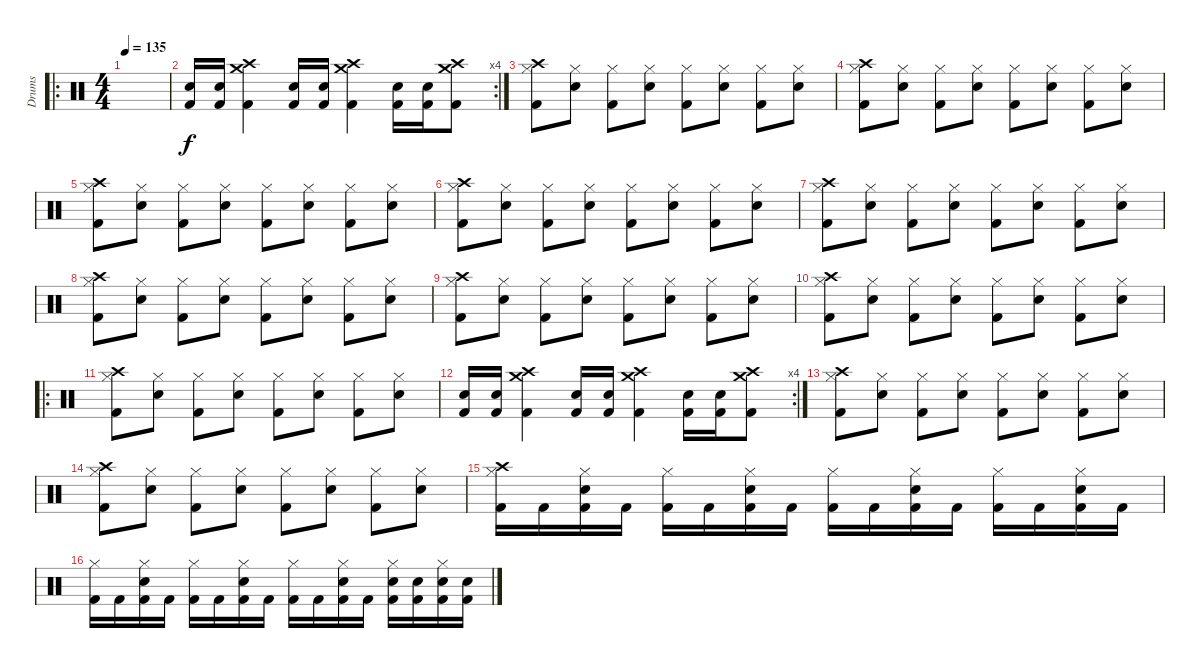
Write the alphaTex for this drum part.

\track ("Drums" "Drums") {instrument percussion}
\staff {score}
\articulation defaults
\ro
\ts (4 4)
\tempo 135
\clef neutral
\ks c
|
\rc 4
("Electric Snare (hit)" "Kick (hit) 2").16 ("Electric Snare (hit)" "Kick (hit) 2").16 ("Crash high (hit)" "Crash medium (hit)" "Kick (hit) 2").4 ("Electric Snare (hit)" "Kick (hit) 2").16 ("Electric Snare (hit)" "Kick (hit) 2").16 ("Crash high (hit)" "Crash medium (hit)" "Kick (hit) 2").4 ("Electric Snare (hit)" "Kick (hit) 2").16 ("Electric Snare (hit)" "Kick (hit) 2").16 ("Crash high (hit)" "Crash medium (hit)" "Kick (hit) 2").8 |
("Hi-Hat (closed)" "Kick (hit) 2" "Crash high (hit)").8 ("Hi-Hat (closed)" "Electric Snare (hit)").8 ("Hi-Hat (closed)" "Kick (hit) 2").8 ("Hi-Hat (closed)" "Electric Snare (hit)").8 ("Hi-Hat (closed)" "Kick (hit) 2").8 ("Hi-Hat (closed)" "Electric Snare (hit)").8 ("Hi-Hat (closed)" "Kick (hit) 2").8 ("Hi-Hat (closed)" "Electric Snare (hit)").8 |
("Hi-Hat (closed)" "Kick (hit) 2" "Crash high (hit)").8 ("Hi-Hat (closed)" "Electric Snare (hit)").8 ("Hi-Hat (closed)" "Kick (hit) 2").8 ("Hi-Hat (closed)" "Electric Snare (hit)").8 ("Hi-Hat (closed)" "Kick (hit) 2").8 ("Hi-Hat (closed)" "Electric Snare (hit)").8 ("Hi-Hat (closed)" "Kick (hit) 2").8 ("Hi-Hat (closed)" "Electric Snare (hit)").8 |
("Hi-Hat (closed)" "Kick (hit) 2" "Crash high (hit)").8 ("Hi-Hat (closed)" "Electric Snare (hit)").8 ("Hi-Hat (closed)" "Kick (hit) 2").8 ("Hi-Hat (closed)" "Electric Snare (hit)").8 ("Hi-Hat (closed)" "Kick (hit) 2").8 ("Hi-Hat (closed)" "Electric Snare (hit)").8 ("Hi-Hat (closed)" "Kick (hit) 2").8 ("Hi-Hat (closed)" "Electric Snare (hit)").8 |
("Hi-Hat (closed)" "Kick (hit) 2" "Crash high (hit)").8 ("Hi-Hat (closed)" "Electric Snare (hit)").8 ("Hi-Hat (closed)" "Kick (hit) 2").8 ("Hi-Hat (closed)" "Electric Snare (hit)").8 ("Hi-Hat (closed)" "Kick (hit) 2").8 ("Hi-Hat (closed)" "Electric Snare (hit)").8 ("Hi-Hat (closed)" "Kick (hit) 2").8 ("Hi-Hat (closed)" "Electric Snare (hit)").8 |
("Hi-Hat (closed)" "Kick (hit) 2" "Crash high (hit)").8 ("Hi-Hat (closed)" "Electric Snare (hit)").8 ("Hi-Hat (closed)" "Kick (hit) 2").8 ("Hi-Hat (closed)" "Electric Snare (hit)").8 ("Hi-Hat (closed)" "Kick (hit) 2").8 ("Hi-Hat (closed)" "Electric Snare (hit)").8 ("Hi-Hat (closed)" "Kick (hit) 2").8 ("Hi-Hat (closed)" "Electric Snare (hit)").8 |
("Hi-Hat (closed)" "Kick (hit) 2" "Crash high (hit)").8 ("Hi-Hat (closed)" "Electric Snare (hit)").8 ("Hi-Hat (closed)" "Kick (hit) 2").8 ("Hi-Hat (closed)" "Electric Snare (hit)").8 ("Hi-Hat (closed)" "Kick (hit) 2").8 ("Hi-Hat (closed)" "Electric Snare (hit)").8 ("Hi-Hat (closed)" "Kick (hit) 2").8 ("Hi-Hat (closed)" "Electric Snare (hit)").8 |
("Hi-Hat (closed)" "Kick (hit) 2" "Crash high (hit)").8 ("Hi-Hat (closed)" "Electric Snare (hit)").8 ("Hi-Hat (closed)" "Kick (hit) 2").8 ("Hi-Hat (closed)" "Electric Snare (hit)").8 ("Hi-Hat (closed)" "Kick (hit) 2").8 ("Hi-Hat (closed)" "Electric Snare (hit)").8 ("Hi-Hat (closed)" "Kick (hit) 2").8 ("Hi-Hat (closed)" "Electric Snare (hit)").8 |
("Hi-Hat (closed)" "Kick (hit) 2" "Crash high (hit)").8 ("Hi-Hat (closed)" "Electric Snare (hit)").8 ("Hi-Hat (closed)" "Kick (hit) 2").8 ("Hi-Hat (closed)" "Electric Snare (hit)").8 ("Hi-Hat (closed)" "Kick (hit) 2").8 ("Hi-Hat (closed)" "Electric Snare (hit)").8 ("Hi-Hat (closed)" "Kick (hit) 2").8 ("Hi-Hat (closed)" "Electric Snare (hit)").8 |
\ro
("Hi-Hat (closed)" "Kick (hit) 2" "Crash high (hit)").8 ("Hi-Hat (closed)" "Electric Snare (hit)").8 ("Hi-Hat (closed)" "Kick (hit) 2").8 ("Hi-Hat (closed)" "Electric Snare (hit)").8 ("Hi-Hat (closed)" "Kick (hit) 2").8 ("Hi-Hat (closed)" "Electric Snare (hit)").8 ("Hi-Hat (closed)" "Kick (hit) 2").8 ("Hi-Hat (closed)" "Electric Snare (hit)").8 |
\rc 4
("Electric Snare (hit)" "Kick (hit) 2").16 ("Electric Snare (hit)" "Kick (hit) 2").16 ("Crash high (hit)" "Crash medium (hit)" "Kick (hit) 2").4 ("Electric Snare (hit)" "Kick (hit) 2").16 ("Electric Snare (hit)" "Kick (hit) 2").16 ("Crash high (hit)" "Crash medium (hit)" "Kick (hit) 2").4 ("Electric Snare (hit)" "Kick (hit) 2").16 ("Electric Snare (hit)" "Kick (hit) 2").16 ("Crash high (hit)" "Crash medium (hit)" "Kick (hit) 2").8 |
("Hi-Hat (closed)" "Kick (hit) 2" "Crash high (hit)").8 ("Hi-Hat (closed)" "Electric Snare (hit)").8 ("Hi-Hat (closed)" "Kick (hit) 2").8 ("Hi-Hat (closed)" "Electric Snare (hit)").8 ("Hi-Hat (closed)" "Kick (hit) 2").8 ("Hi-Hat (closed)" "Electric Snare (hit)").8 ("Hi-Hat (closed)" "Kick (hit) 2").8 ("Hi-Hat (closed)" "Electric Snare (hit)").8 |
("Hi-Hat (closed)" "Kick (hit) 2" "Crash high (hit)").8 ("Hi-Hat (closed)" "Electric Snare (hit)").8 ("Hi-Hat (closed)" "Kick (hit) 2").8 ("Hi-Hat (closed)" "Electric Snare (hit)").8 ("Hi-Hat (closed)" "Kick (hit) 2").8 ("Hi-Hat (closed)" "Electric Snare (hit)").8 ("Hi-Hat (closed)" "Kick (hit) 2").8 ("Hi-Hat (closed)" "Electric Snare (hit)").8 |
("Kick (hit) 2" "Hi-Hat (closed)" "Crash high (hit)").16 "Kick (hit) 2".16 ("Kick (hit) 2" "Electric Snare (hit)" "Hi-Hat (closed)").16 "Kick (hit) 2".16 ("Kick (hit) 2" "Hi-Hat (closed)").16 "Kick (hit) 2".16 ("Kick (hit) 2" "Electric Snare (hit)" "Hi-Hat (closed)").16 "Kick (hit) 2".16 ("Kick (hit) 2" "Hi-Hat (closed)").16 "Kick (hit) 2".16 ("Kick (hit) 2" "Electric Snare (hit)" "Hi-Hat (closed)").16 "Kick (hit) 2".16 ("Kick (hit) 2" "Hi-Hat (closed)").16 "Kick (hit) 2".16 ("Kick (hit) 2" "Electric Snare (hit)" "Hi-Hat (closed)").16 "Kick (hit) 2".16 |
("Kick (hit) 2" "Hi-Hat (closed)").16 "Kick (hit) 2".16 ("Kick (hit) 2" "Electric Snare (hit)" "Hi-Hat (closed)").16 "Kick (hit) 2".16 ("Kick (hit) 2" "Hi-Hat (closed)").16 "Kick (hit) 2".16 ("Kick (hit) 2" "Electric Snare (hit)" "Hi-Hat (closed)").16 "Kick (hit) 2".16 ("Kick (hit) 2" "Hi-Hat (closed)").16 "Kick (hit) 2".16 ("Kick (hit) 2" "Electric Snare (hit)" "Hi-Hat (closed)").16 "Kick (hit) 2".16 ("Kick (hit) 2" "Electric Snare (hit)" "Hi-Hat (closed)").16 ("Kick (hit) 2" "Electric Snare (hit)").16 ("Kick (hit) 2" "Electric Snare (hit)" "Hi-Hat (closed)").16 ("Kick (hit) 2" "Electric Snare (hit)").16
